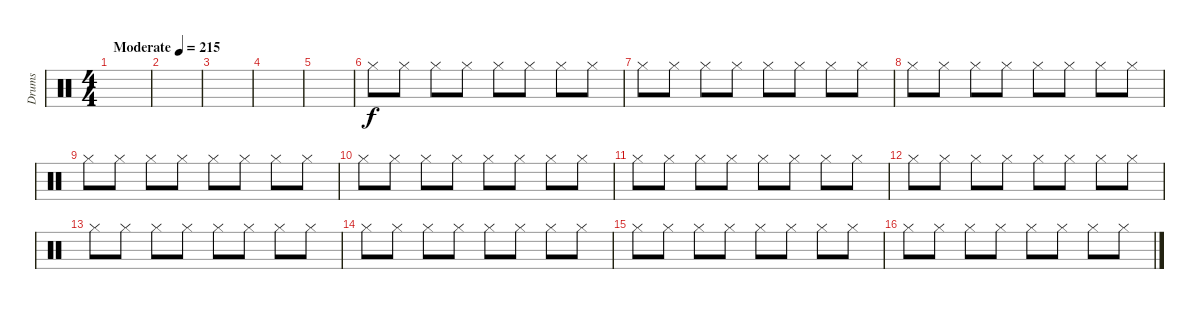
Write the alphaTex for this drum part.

\track ("Drums" "Drums") {instrument percussion}
\staff {score}
\articulation defaults
\ts (4 4)
\tempo (215 "Moderate")
\clef neutral
\ks c
|
|
|
|
|
"Hi-Hat (closed)".8 "Hi-Hat (closed)".8 "Hi-Hat (closed)".8 "Hi-Hat (closed)".8 "Hi-Hat (closed)".8 "Hi-Hat (closed)".8 "Hi-Hat (closed)".8 "Hi-Hat (closed)".8 |
"Hi-Hat (closed)".8 "Hi-Hat (closed)".8 "Hi-Hat (closed)".8 "Hi-Hat (closed)".8 "Hi-Hat (closed)".8 "Hi-Hat (closed)".8 "Hi-Hat (closed)".8 "Hi-Hat (closed)".8 |
"Hi-Hat (closed)".8 "Hi-Hat (closed)".8 "Hi-Hat (closed)".8 "Hi-Hat (closed)".8 "Hi-Hat (closed)".8 "Hi-Hat (closed)".8 "Hi-Hat (closed)".8 "Hi-Hat (closed)".8 |
"Hi-Hat (closed)".8 "Hi-Hat (closed)".8 "Hi-Hat (closed)".8 "Hi-Hat (closed)".8 "Hi-Hat (closed)".8 "Hi-Hat (closed)".8 "Hi-Hat (closed)".8 "Hi-Hat (closed)".8 |
"Hi-Hat (closed)".8 "Hi-Hat (closed)".8 "Hi-Hat (closed)".8 "Hi-Hat (closed)".8 "Hi-Hat (closed)".8 "Hi-Hat (closed)".8 "Hi-Hat (closed)".8 "Hi-Hat (closed)".8 |
"Hi-Hat (closed)".8 "Hi-Hat (closed)".8 "Hi-Hat (closed)".8 "Hi-Hat (closed)".8 "Hi-Hat (closed)".8 "Hi-Hat (closed)".8 "Hi-Hat (closed)".8 "Hi-Hat (closed)".8 |
"Hi-Hat (closed)".8 "Hi-Hat (closed)".8 "Hi-Hat (closed)".8 "Hi-Hat (closed)".8 "Hi-Hat (closed)".8 "Hi-Hat (closed)".8 "Hi-Hat (closed)".8 "Hi-Hat (closed)".8 |
"Hi-Hat (closed)".8 "Hi-Hat (closed)".8 "Hi-Hat (closed)".8 "Hi-Hat (closed)".8 "Hi-Hat (closed)".8 "Hi-Hat (closed)".8 "Hi-Hat (closed)".8 "Hi-Hat (closed)".8 |
"Hi-Hat (closed)".8 "Hi-Hat (closed)".8 "Hi-Hat (closed)".8 "Hi-Hat (closed)".8 "Hi-Hat (closed)".8 "Hi-Hat (closed)".8 "Hi-Hat (closed)".8 "Hi-Hat (closed)".8 |
"Hi-Hat (closed)".8 "Hi-Hat (closed)".8 "Hi-Hat (closed)".8 "Hi-Hat (closed)".8 "Hi-Hat (closed)".8 "Hi-Hat (closed)".8 "Hi-Hat (closed)".8 "Hi-Hat (closed)".8 |
"Hi-Hat (closed)".8 "Hi-Hat (closed)".8 "Hi-Hat (closed)".8 "Hi-Hat (closed)".8 "Hi-Hat (closed)".8 "Hi-Hat (closed)".8 "Hi-Hat (closed)".8 "Hi-Hat (closed)".8
